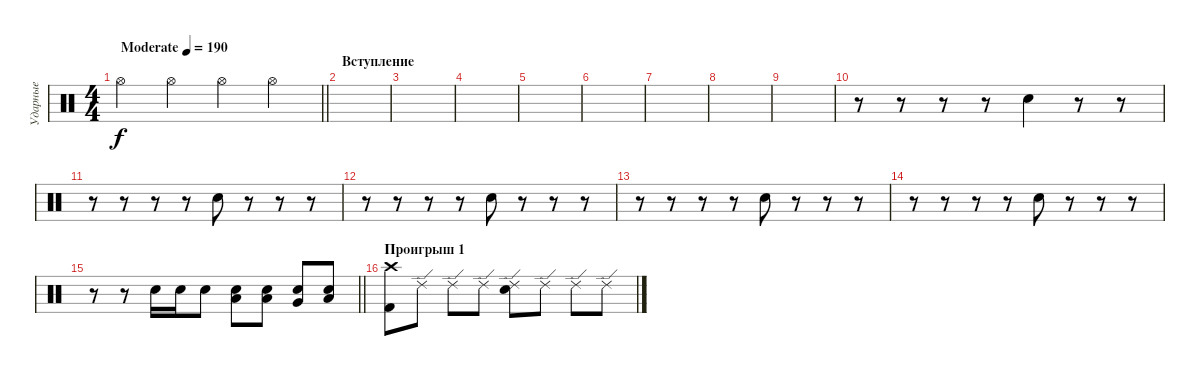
\track ("Ударные" "Ударные") {instrument percussion}
\staff {score}
\articulation defaults
\ts (4 4)
\tempo (190 "Moderate")
\clef neutral
\barLineRight lightlight
\ks c "Hi-Hat (open)".4{dy f} "Hi-Hat (open)".4 "Hi-Hat (open)".4 "Hi-Hat (open)".4
|
\section ("" "Вступление")
|
|
|
|
|
|
|
|
r.8 r.8 r.8 r.8 "Electric Snare (hit)".4 r.8 r.8 |
r.8 r.8 r.8 r.8 "Electric Snare (hit)".8 r.8 r.8 r.8 |
r.8 r.8 r.8 r.8 "Electric Snare (hit)".8 r.8 r.8 r.8 |
r.8 r.8 r.8 r.8 "Electric Snare (hit)".8 r.8 r.8 r.8 |
r.8 r.8 r.8 r.8 "Electric Snare (hit)".8 r.8 r.8 r.8 |
\barLineRight lightlight
r.8 r.8 "Snare (hit) 2".16 "Electric Snare (hit)".16 "Electric Snare (hit)".8 ("Low Tom (hit)" "Electric Snare (hit)").8 ("Low Tom (hit)" "Electric Snare (hit)").8 ("Very Low Tom (hit)" "Electric Snare (hit)").8 ("Low Floor Tom (hit)" "Electric Snare (hit)").8 |
\section ("" "Проигрыш 1")
("Crash high (hit)" "Kick (hit) 2").8 "Ride (edge) 2".8 "Ride (edge) 2".8 "Ride (edge) 2".8 ("Electric Snare (hit)" "Ride (edge) 2").8 "Ride (edge) 2".8 "Ride (edge) 2".8 "Ride (edge) 2".8
